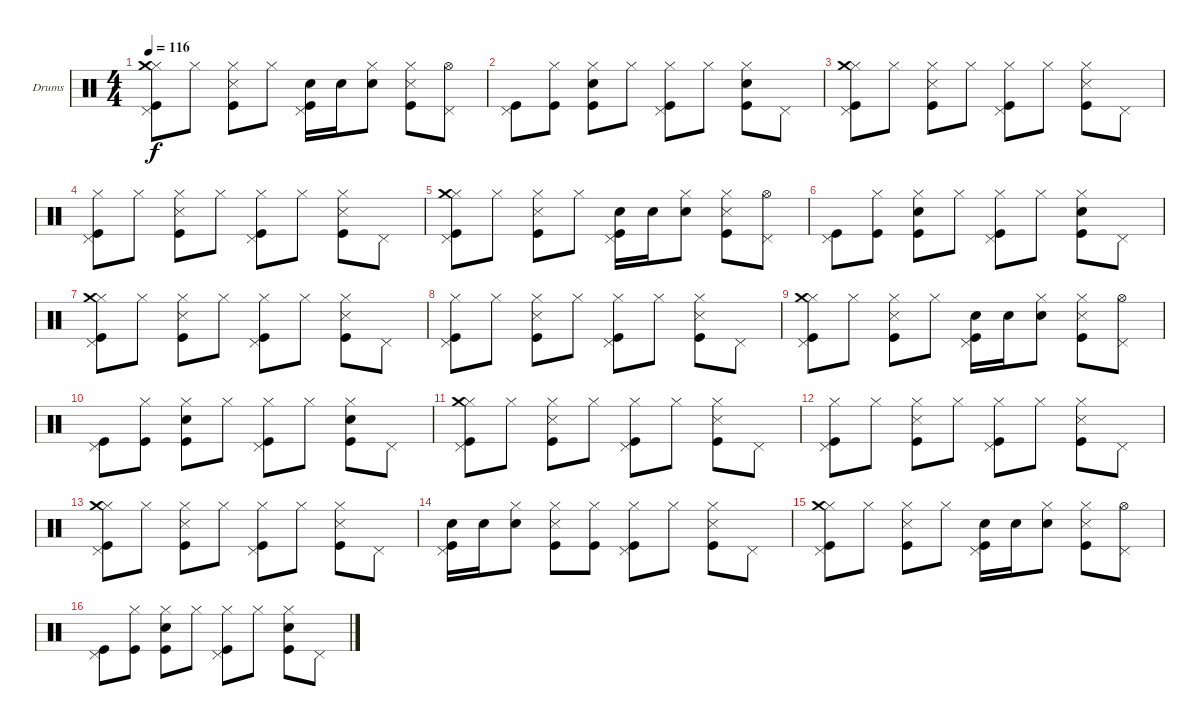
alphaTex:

\bracketExtendMode groupsimilarinstruments
\firstSystemTrackNameOrientation horizontal
\otherSystemsTrackNameOrientation horizontal
\track ("Drumkit" "Drums") {instrument percussion}
\staff {score}
\articulation defaults
\ts (4 4)
\tempo 116
\clef neutral
\ks c
("Hi-Hat (closed)" "Kick (hit)" "Pedal Hi-Hat (hit)" "Crash medium (hit)").8{dy f} "Hi-Hat (closed)".8 ("Snare (side stick) 3" "Hi-Hat (closed)" "Kick (hit)").8 "Hi-Hat (closed)".8 ("Snare (hit) 2" "Pedal Hi-Hat (hit)" "Kick (hit)").16 "Snare (hit) 2".16 ("Snare (hit) 2" "Hi-Hat (closed)").8 ("Snare (side stick) 3" "Hi-Hat (closed)" "Kick (hit)").8 ("Hi-Hat (open)" "Pedal Hi-Hat (hit)").8 |
("Kick (hit)" "Pedal Hi-Hat (hit)").8 ("Kick (hit)" "Hi-Hat (closed)").8 ("Snare (hit) 2" "Hi-Hat (closed)" "Kick (hit)").8 "Hi-Hat (closed)".8 ("Hi-Hat (closed)" "Pedal Hi-Hat (hit)" "Kick (hit)").8 "Hi-Hat (closed)".8 ("Snare (hit) 2" "Hi-Hat (closed)" "Kick (hit)").8 "Pedal Hi-Hat (hit)".8 |
("Kick (hit)" "Hi-Hat (closed)" "Pedal Hi-Hat (hit)" "Crash medium (hit)").8 "Hi-Hat (closed)".8 ("Snare (side stick) 3" "Hi-Hat (closed)" "Kick (hit)").8 "Hi-Hat (closed)".8 ("Kick (hit)" "Hi-Hat (closed)" "Pedal Hi-Hat (hit)").8 "Hi-Hat (closed)".8 ("Snare (side stick) 3" "Hi-Hat (closed)" "Kick (hit)").8 "Pedal Hi-Hat (hit)".8 |
("Kick (hit)" "Hi-Hat (closed)" "Pedal Hi-Hat (hit)").8 "Hi-Hat (closed)".8 ("Snare (side stick) 3" "Hi-Hat (closed)" "Kick (hit)").8 "Hi-Hat (closed)".8 ("Kick (hit)" "Hi-Hat (closed)" "Pedal Hi-Hat (hit)").8 "Hi-Hat (closed)".8 ("Snare (side stick) 3" "Hi-Hat (closed)" "Kick (hit)").8 "Pedal Hi-Hat (hit)".8 |
("Hi-Hat (closed)" "Kick (hit)" "Pedal Hi-Hat (hit)" "Crash medium (hit)").8 "Hi-Hat (closed)".8 ("Snare (side stick) 3" "Hi-Hat (closed)" "Kick (hit)").8 "Hi-Hat (closed)".8 ("Snare (hit) 2" "Pedal Hi-Hat (hit)" "Kick (hit)").16 "Snare (hit) 2".16 ("Snare (hit) 2" "Hi-Hat (closed)").8 ("Snare (side stick) 3" "Hi-Hat (closed)" "Kick (hit)").8 ("Hi-Hat (open)" "Pedal Hi-Hat (hit)").8 |
("Kick (hit)" "Pedal Hi-Hat (hit)").8 ("Kick (hit)" "Hi-Hat (closed)").8 ("Snare (hit) 2" "Hi-Hat (closed)" "Kick (hit)").8 "Hi-Hat (closed)".8 ("Hi-Hat (closed)" "Pedal Hi-Hat (hit)" "Kick (hit)").8 "Hi-Hat (closed)".8 ("Snare (hit) 2" "Hi-Hat (closed)" "Kick (hit)").8 "Pedal Hi-Hat (hit)".8 |
("Kick (hit)" "Hi-Hat (closed)" "Pedal Hi-Hat (hit)" "Crash medium (hit)").8 "Hi-Hat (closed)".8 ("Snare (side stick) 3" "Hi-Hat (closed)" "Kick (hit)").8 "Hi-Hat (closed)".8 ("Kick (hit)" "Hi-Hat (closed)" "Pedal Hi-Hat (hit)").8 "Hi-Hat (closed)".8 ("Snare (side stick) 3" "Hi-Hat (closed)" "Kick (hit)").8 "Pedal Hi-Hat (hit)".8 |
("Kick (hit)" "Hi-Hat (closed)" "Pedal Hi-Hat (hit)").8 "Hi-Hat (closed)".8 ("Snare (side stick) 3" "Hi-Hat (closed)" "Kick (hit)").8 "Hi-Hat (closed)".8 ("Kick (hit)" "Hi-Hat (closed)" "Pedal Hi-Hat (hit)").8 "Hi-Hat (closed)".8 ("Snare (side stick) 3" "Hi-Hat (closed)" "Kick (hit)").8 "Pedal Hi-Hat (hit)".8 |
("Hi-Hat (closed)" "Kick (hit)" "Pedal Hi-Hat (hit)" "Crash medium (hit)").8 "Hi-Hat (closed)".8 ("Snare (side stick) 3" "Hi-Hat (closed)" "Kick (hit)").8 "Hi-Hat (closed)".8 ("Snare (hit) 2" "Pedal Hi-Hat (hit)" "Kick (hit)").16 "Snare (hit) 2".16 ("Snare (hit) 2" "Hi-Hat (closed)").8 ("Snare (side stick) 3" "Hi-Hat (closed)" "Kick (hit)").8 ("Hi-Hat (open)" "Pedal Hi-Hat (hit)").8 |
("Kick (hit)" "Pedal Hi-Hat (hit)").8 ("Kick (hit)" "Hi-Hat (closed)").8 ("Snare (hit) 2" "Hi-Hat (closed)" "Kick (hit)").8 "Hi-Hat (closed)".8 ("Hi-Hat (closed)" "Pedal Hi-Hat (hit)" "Kick (hit)").8 "Hi-Hat (closed)".8 ("Snare (hit) 2" "Hi-Hat (closed)" "Kick (hit)").8 "Pedal Hi-Hat (hit)".8 |
("Kick (hit)" "Hi-Hat (closed)" "Pedal Hi-Hat (hit)" "Crash medium (hit)").8 "Hi-Hat (closed)".8 ("Snare (side stick) 3" "Hi-Hat (closed)" "Kick (hit)").8 "Hi-Hat (closed)".8 ("Kick (hit)" "Hi-Hat (closed)" "Pedal Hi-Hat (hit)").8 "Hi-Hat (closed)".8 ("Snare (side stick) 3" "Hi-Hat (closed)" "Kick (hit)").8 "Pedal Hi-Hat (hit)".8 |
("Kick (hit)" "Hi-Hat (closed)" "Pedal Hi-Hat (hit)").8 "Hi-Hat (closed)".8 ("Snare (side stick) 3" "Hi-Hat (closed)" "Kick (hit)").8 "Hi-Hat (closed)".8 ("Kick (hit)" "Hi-Hat (closed)" "Pedal Hi-Hat (hit)").8 "Hi-Hat (closed)".8 ("Snare (side stick) 3" "Hi-Hat (closed)" "Kick (hit)").8 "Pedal Hi-Hat (hit)".8 |
("Kick (hit)" "Hi-Hat (closed)" "Pedal Hi-Hat (hit)" "Crash medium (hit)").8 "Hi-Hat (closed)".8 ("Snare (side stick) 3" "Hi-Hat (closed)" "Kick (hit)").8 "Hi-Hat (closed)".8 ("Kick (hit)" "Hi-Hat (closed)" "Pedal Hi-Hat (hit)").8 "Hi-Hat (closed)".8 ("Snare (side stick) 3" "Hi-Hat (closed)" "Kick (hit)").8 "Pedal Hi-Hat (hit)".8 |
("Kick (hit)" "Snare (hit) 2" "Pedal Hi-Hat (hit)").16 "Snare (hit) 2".16 ("Snare (hit) 2" "Hi-Hat (closed)").8 ("Snare (side stick) 3" "Kick (hit)" "Hi-Hat (closed)").8 ("Kick (hit)" "Hi-Hat (closed)").8 ("Hi-Hat (closed)" "Pedal Hi-Hat (hit)" "Kick (hit)").8 "Hi-Hat (closed)".8 ("Snare (side stick) 3" "Hi-Hat (closed)" "Kick (hit)").8 "Pedal Hi-Hat (hit)".8 |
("Hi-Hat (closed)" "Kick (hit)" "Pedal Hi-Hat (hit)" "Crash medium (hit)").8 "Hi-Hat (closed)".8 ("Snare (side stick) 3" "Hi-Hat (closed)" "Kick (hit)").8 "Hi-Hat (closed)".8 ("Snare (hit) 2" "Pedal Hi-Hat (hit)" "Kick (hit)").16 "Snare (hit) 2".16 ("Snare (hit) 2" "Hi-Hat (closed)").8 ("Snare (side stick) 3" "Hi-Hat (closed)" "Kick (hit)").8 ("Hi-Hat (open)" "Pedal Hi-Hat (hit)").8 |
("Kick (hit)" "Pedal Hi-Hat (hit)").8 ("Kick (hit)" "Hi-Hat (closed)").8 ("Snare (hit) 2" "Hi-Hat (closed)" "Kick (hit)").8 "Hi-Hat (closed)".8 ("Hi-Hat (closed)" "Pedal Hi-Hat (hit)" "Kick (hit)").8 "Hi-Hat (closed)".8 ("Snare (hit) 2" "Hi-Hat (closed)" "Kick (hit)").8 "Pedal Hi-Hat (hit)".8
